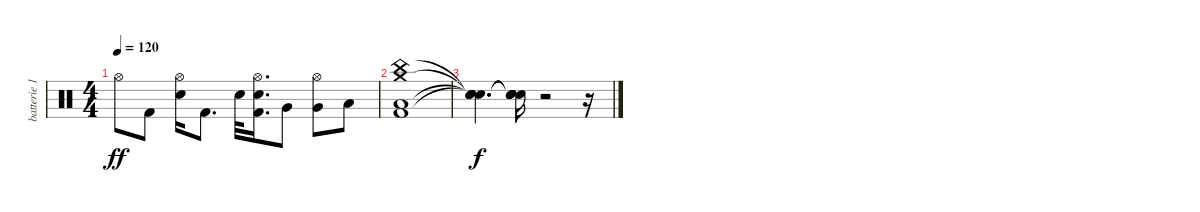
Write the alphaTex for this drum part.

\track ("batterie 1" "batterie 1") {instrument percussion}
\staff {score}
\articulation defaults
\ts (4 4)
\tempo 120
\clef neutral
\ks c "Hi-Hat (open)".8{dy ff} "Kick (hit) 2".8
("Electric Snare (hit)" "Hi-Hat (open)").16 "Kick (hit) 2".8{d} "Electric Snare (hit)".32 ("Kick (hit) 2" "Electric Snare (hit)" "Hi-Hat (open)").16{d} "Very Low Tom (hit)".8 ("Very Low Tom (hit)" "Hi-Hat (open)").8 "Low Floor Tom (hit)".8 |
("Kick (hit) 2" "Low Floor Tom (hit)" "China (hit)" "Crash medium (hit)").1 |
("Snare (hit)"{t} "Snare (hit)"{t} "Snare (hit)"{t} "Snare (hit)"{t}).4{d dy f} ("Snare (hit)"{t} "Snare (hit)"{t} "Snare (hit)"{t} "Snare (hit)"{t}).16 r.2 r.16
